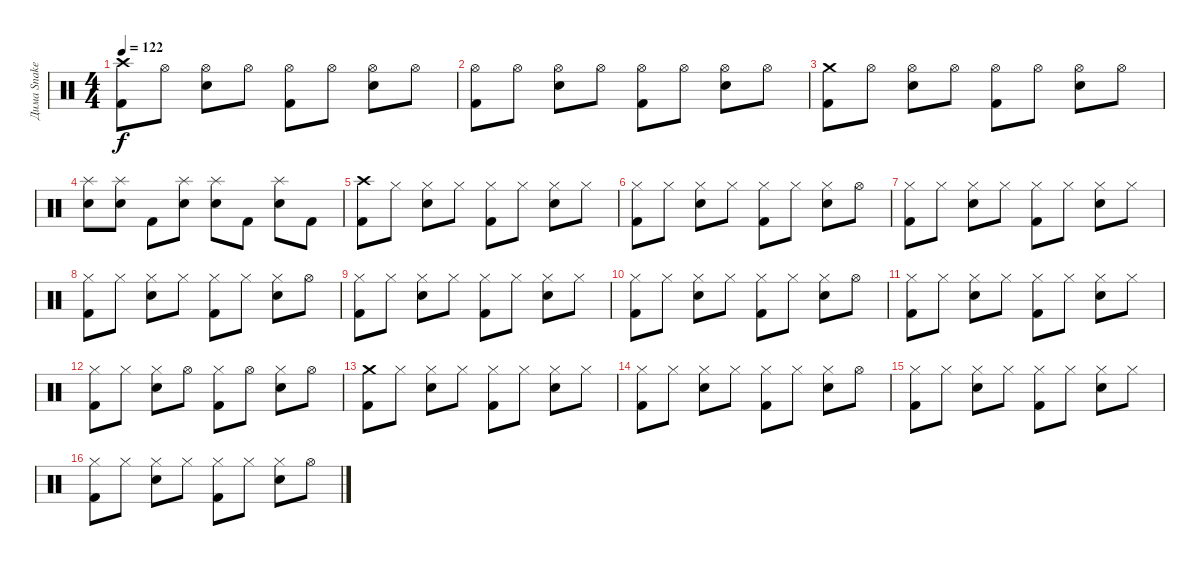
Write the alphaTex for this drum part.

\track ("Дима Snake Хакимов" "Дима Snake") {instrument percussion}
\staff {score}
\articulation defaults
\ts (4 4)
\tempo 122
\clef neutral
\ks c
("Crash high (hit)" "Kick (hit) 2").8{dy f} "Hi-Hat (open)".8 ("Hi-Hat (open)" "Snare (hit) 2").8 "Hi-Hat (open)".8 ("Hi-Hat (open)" "Kick (hit) 2").8 "Hi-Hat (open)".8 ("Hi-Hat (open)" "Snare (hit) 2").8 "Hi-Hat (open)".8 |
("Hi-Hat (open)" "Kick (hit) 2").8 "Hi-Hat (open)".8 ("Hi-Hat (open)" "Snare (hit) 2").8 "Hi-Hat (open)".8 ("Hi-Hat (open)" "Kick (hit) 2").8 "Hi-Hat (open)".8 ("Hi-Hat (open)" "Snare (hit) 2").8 "Hi-Hat (open)".8 |
("Crash medium (hit)" "Kick (hit) 2").8 "Hi-Hat (open)".8 ("Hi-Hat (open)" "Snare (hit) 2").8 "Hi-Hat (open)".8 ("Hi-Hat (open)" "Kick (hit) 2").8 "Hi-Hat (open)".8 ("Hi-Hat (open)" "Snare (hit) 2").8 "Hi-Hat (open)".8 |
("Splash (hit)" "Snare (hit) 2").8 ("Splash (hit)" "Snare (hit) 2").8 "Kick (hit) 2".8 ("Splash (hit)" "Snare (hit) 2").8 ("Splash (hit)" "Snare (hit) 2").8 "Kick (hit) 2".8 ("Splash (hit)" "Snare (hit) 2").8 "Kick (hit) 2".8 |
("Crash high (hit)" "Kick (hit) 2").8 "Hi-Hat (closed)".8 ("Hi-Hat (closed)" "Snare (hit) 2").8 "Hi-Hat (closed)".8 ("Hi-Hat (closed)" "Kick (hit) 2").8 "Hi-Hat (closed)".8 ("Hi-Hat (closed)" "Snare (hit) 2").8 "Hi-Hat (closed)".8 |
("Hi-Hat (closed)" "Kick (hit) 2").8 "Hi-Hat (closed)".8 ("Hi-Hat (closed)" "Snare (hit) 2").8 "Hi-Hat (closed)".8 ("Hi-Hat (closed)" "Kick (hit) 2").8 "Hi-Hat (closed)".8 ("Hi-Hat (closed)" "Snare (hit) 2").8 "Hi-Hat (open)".8 |
("Hi-Hat (closed)" "Kick (hit) 2").8 "Hi-Hat (closed)".8 ("Hi-Hat (closed)" "Snare (hit) 2").8 "Hi-Hat (closed)".8 ("Hi-Hat (closed)" "Kick (hit) 2").8 "Hi-Hat (closed)".8 ("Hi-Hat (closed)" "Snare (hit) 2").8 "Hi-Hat (closed)".8 |
("Hi-Hat (closed)" "Kick (hit) 2").8 "Hi-Hat (closed)".8 ("Hi-Hat (closed)" "Snare (hit) 2").8 "Hi-Hat (closed)".8 ("Hi-Hat (closed)" "Kick (hit) 2").8 "Hi-Hat (closed)".8 ("Hi-Hat (closed)" "Snare (hit) 2").8 "Hi-Hat (open)".8 |
("Hi-Hat (closed)" "Kick (hit) 2").8 "Hi-Hat (closed)".8 ("Hi-Hat (closed)" "Snare (hit) 2").8 "Hi-Hat (closed)".8 ("Hi-Hat (closed)" "Kick (hit) 2").8 "Hi-Hat (closed)".8 ("Hi-Hat (closed)" "Snare (hit) 2").8 "Hi-Hat (closed)".8 |
("Hi-Hat (closed)" "Kick (hit) 2").8 "Hi-Hat (closed)".8 ("Hi-Hat (closed)" "Snare (hit) 2").8 "Hi-Hat (closed)".8 ("Hi-Hat (closed)" "Kick (hit) 2").8 "Hi-Hat (closed)".8 ("Hi-Hat (closed)" "Snare (hit) 2").8 "Hi-Hat (open)".8 |
("Hi-Hat (closed)" "Kick (hit) 2").8 "Hi-Hat (closed)".8 ("Hi-Hat (closed)" "Snare (hit) 2").8 "Hi-Hat (closed)".8 ("Hi-Hat (closed)" "Kick (hit) 2").8 "Hi-Hat (closed)".8 ("Hi-Hat (closed)" "Snare (hit) 2").8 "Hi-Hat (closed)".8 |
("Hi-Hat (closed)" "Kick (hit) 2").8 "Hi-Hat (closed)".8 ("Hi-Hat (closed)" "Snare (hit) 2").8 "Hi-Hat (open)".8 ("Hi-Hat (closed)" "Kick (hit) 2").8 "Hi-Hat (open)".8 ("Hi-Hat (closed)" "Snare (hit) 2").8 "Hi-Hat (open)".8 |
("Crash medium (hit)" "Kick (hit) 2").8 "Hi-Hat (closed)".8 ("Hi-Hat (closed)" "Snare (hit) 2").8 "Hi-Hat (closed)".8 ("Hi-Hat (closed)" "Kick (hit) 2").8 "Hi-Hat (closed)".8 ("Hi-Hat (closed)" "Snare (hit) 2").8 "Hi-Hat (closed)".8 |
("Hi-Hat (closed)" "Kick (hit) 2").8 "Hi-Hat (closed)".8 ("Hi-Hat (closed)" "Snare (hit) 2").8 "Hi-Hat (closed)".8 ("Hi-Hat (closed)" "Kick (hit) 2").8 "Hi-Hat (closed)".8 ("Hi-Hat (closed)" "Snare (hit) 2").8 "Hi-Hat (open)".8 |
("Hi-Hat (closed)" "Kick (hit) 2").8 "Hi-Hat (closed)".8 ("Hi-Hat (closed)" "Snare (hit) 2").8 "Hi-Hat (closed)".8 ("Hi-Hat (closed)" "Kick (hit) 2").8 "Hi-Hat (closed)".8 ("Hi-Hat (closed)" "Snare (hit) 2").8 "Hi-Hat (closed)".8 |
("Hi-Hat (closed)" "Kick (hit) 2").8 "Hi-Hat (closed)".8 ("Hi-Hat (closed)" "Snare (hit) 2").8 "Hi-Hat (closed)".8 ("Hi-Hat (closed)" "Kick (hit) 2").8 "Hi-Hat (closed)".8 ("Hi-Hat (closed)" "Snare (hit) 2").8 "Hi-Hat (open)".8
